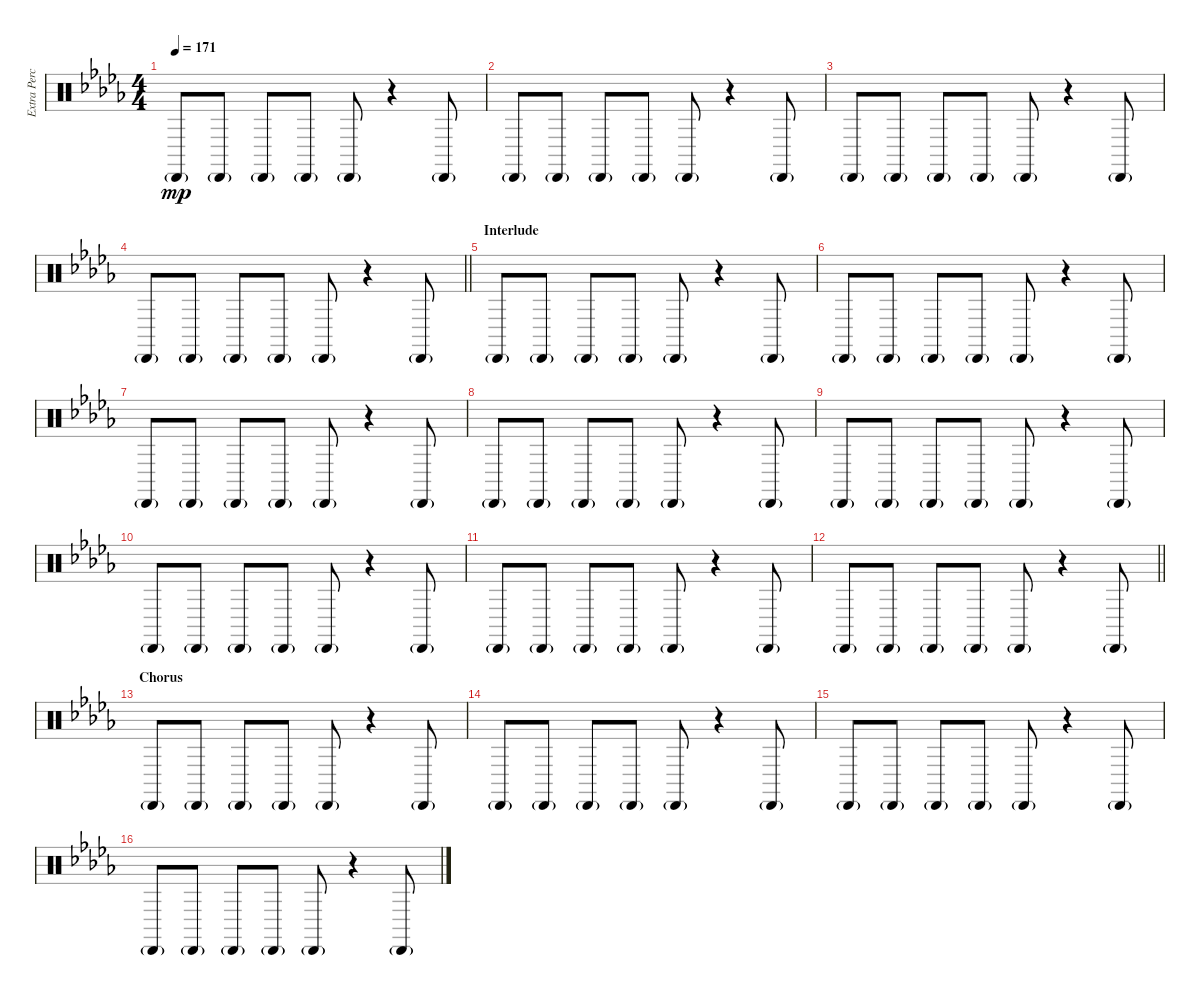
\track ("Extra Percussion" "Extra Perc") {instrument percussion}
\staff {score}
\articulation defaults
\ts (4 4)
\tempo 171
\clef neutral
\ks db "Cabasa (hit)"{g}.8{dy mp} "Cabasa (hit)"{g}.8 "Cabasa (hit)"{g}.8 "Cabasa (hit)"{g}.8 "Cabasa (hit)"{g}.8
r.4 "Cabasa (hit)"{g}.8 |
"Cabasa (hit)"{g}.8 "Cabasa (hit)"{g}.8 "Cabasa (hit)"{g}.8 "Cabasa (hit)"{g}.8 "Cabasa (hit)"{g}.8 r.4 "Cabasa (hit)"{g}.8 |
"Cabasa (hit)"{g}.8 "Cabasa (hit)"{g}.8 "Cabasa (hit)"{g}.8 "Cabasa (hit)"{g}.8 "Cabasa (hit)"{g}.8 r.4 "Cabasa (hit)"{g}.8 |
\barLineRight lightlight "Cabasa (hit)"{g}.8 "Cabasa (hit)"{g}.8 "Cabasa (hit)"{g}.8 "Cabasa (hit)"{g}.8 "Cabasa (hit)"{g}.8
r.4 "Cabasa (hit)"{g}.8 |
\section ("" "Interlude")
"Cabasa (hit)"{g}.8 "Cabasa (hit)"{g}.8 "Cabasa (hit)"{g}.8 "Cabasa (hit)"{g}.8 "Cabasa (hit)"{g}.8 r.4 "Cabasa (hit)"{g}.8 |
"Cabasa (hit)"{g}.8 "Cabasa (hit)"{g}.8 "Cabasa (hit)"{g}.8 "Cabasa (hit)"{g}.8 "Cabasa (hit)"{g}.8 r.4 "Cabasa (hit)"{g}.8 |
"Cabasa (hit)"{g}.8 "Cabasa (hit)"{g}.8 "Cabasa (hit)"{g}.8 "Cabasa (hit)"{g}.8 "Cabasa (hit)"{g}.8 r.4 "Cabasa (hit)"{g}.8 |
"Cabasa (hit)"{g}.8 "Cabasa (hit)"{g}.8 "Cabasa (hit)"{g}.8 "Cabasa (hit)"{g}.8 "Cabasa (hit)"{g}.8 r.4 "Cabasa (hit)"{g}.8 |
"Cabasa (hit)"{g}.8 "Cabasa (hit)"{g}.8 "Cabasa (hit)"{g}.8 "Cabasa (hit)"{g}.8 "Cabasa (hit)"{g}.8 r.4 "Cabasa (hit)"{g}.8 |
"Cabasa (hit)"{g}.8 "Cabasa (hit)"{g}.8 "Cabasa (hit)"{g}.8 "Cabasa (hit)"{g}.8 "Cabasa (hit)"{g}.8 r.4 "Cabasa (hit)"{g}.8 |
"Cabasa (hit)"{g}.8 "Cabasa (hit)"{g}.8 "Cabasa (hit)"{g}.8 "Cabasa (hit)"{g}.8 "Cabasa (hit)"{g}.8 r.4 "Cabasa (hit)"{g}.8 |
\barLineRight lightlight "Cabasa (hit)"{g}.8 "Cabasa (hit)"{g}.8 "Cabasa (hit)"{g}.8 "Cabasa (hit)"{g}.8 "Cabasa (hit)"{g}.8
r.4 "Cabasa (hit)"{g}.8 |
\section ("" "Chorus")
"Cabasa (hit)"{g}.8 "Cabasa (hit)"{g}.8 "Cabasa (hit)"{g}.8 "Cabasa (hit)"{g}.8 "Cabasa (hit)"{g}.8 r.4 "Cabasa (hit)"{g}.8 |
"Cabasa (hit)"{g}.8 "Cabasa (hit)"{g}.8 "Cabasa (hit)"{g}.8 "Cabasa (hit)"{g}.8 "Cabasa (hit)"{g}.8 r.4 "Cabasa (hit)"{g}.8 |
"Cabasa (hit)"{g}.8 "Cabasa (hit)"{g}.8 "Cabasa (hit)"{g}.8 "Cabasa (hit)"{g}.8 "Cabasa (hit)"{g}.8 r.4 "Cabasa (hit)"{g}.8 |
"Cabasa (hit)"{g}.8 "Cabasa (hit)"{g}.8 "Cabasa (hit)"{g}.8 "Cabasa (hit)"{g}.8 "Cabasa (hit)"{g}.8 r.4 "Cabasa (hit)"{g}.8
